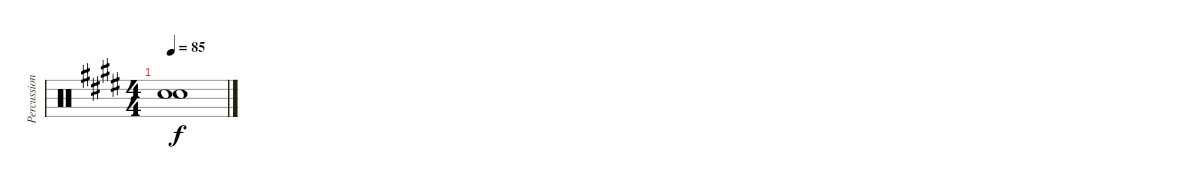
\track ("Percussion" "Percussion") {instrument percussion}
\staff {score}
\articulation defaults
\ts (4 4)
\tempo 85
\clef neutral
\ks e
("Snare (hit)"{t} "Snare (hit)"{t}).1{dy f}
